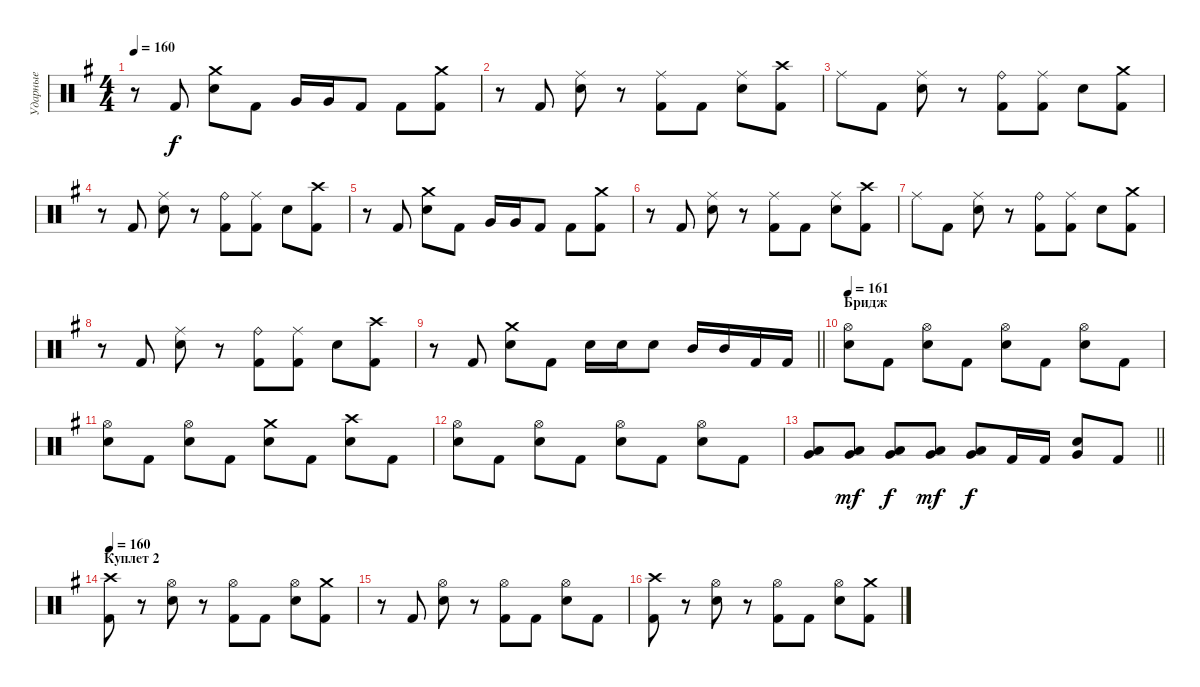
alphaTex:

\track ("Ударные" "Ударные") {instrument percussion}
\staff {score}
\articulation defaults
\ts (4 4)
\tempo 160
\clef neutral
\ks eminor
r.8{dy f} "Kick (hit) 2".8 ("Crash medium (hit)" "Electric Snare (hit)").8 "Kick (hit) 2".8 "Very Low Tom (hit)".16 "Very Low Tom (hit)".16 "Kick (hit) 2".8 "Kick (hit) 2".8 ("Crash medium (hit)" "Kick (hit) 2").8 |
r.8 "Kick (hit) 2".8 ("Ride (middle)" "Electric Snare (hit)").8 r.8 ("Ride (middle)" "Kick (hit) 2").8 "Kick (hit) 2".8 ("Ride (middle)" "Electric Snare (hit)").8 ("Crash high (hit)" "Kick (hit) 2").8 |
"Ride (middle)".8 "Kick (hit) 2".8 ("Ride (middle)" "Electric Snare (hit)").8 r.8 ("Ride (bell)" "Kick (hit) 2").8 ("Ride (middle)" "Kick (hit) 2").8 "Electric Snare (hit)".8 ("Crash medium (hit)" "Kick (hit) 2").8 |
r.8 "Kick (hit) 2".8 ("Ride (middle)" "Electric Snare (hit)").8 r.8 ("Ride (bell)" "Kick (hit) 2").8 ("Ride (middle)" "Kick (hit) 2").8 "Electric Snare (hit)".8 ("Crash high (hit)" "Kick (hit) 2").8 |
r.8 "Kick (hit) 2".8 ("Crash medium (hit)" "Electric Snare (hit)").8 "Kick (hit) 2".8 "Very Low Tom (hit)".16 "Very Low Tom (hit)".16 "Kick (hit) 2".8 "Kick (hit) 2".8 ("Crash medium (hit)" "Kick (hit) 2").8 |
r.8 "Kick (hit) 2".8 ("Ride (middle)" "Electric Snare (hit)").8 r.8 ("Ride (middle)" "Kick (hit) 2").8 "Kick (hit) 2".8 ("Ride (middle)" "Electric Snare (hit)").8 ("Crash high (hit)" "Kick (hit) 2").8 |
"Ride (middle)".8 "Kick (hit) 2".8 ("Ride (middle)" "Electric Snare (hit)").8 r.8 ("Ride (bell)" "Kick (hit) 2").8 ("Ride (middle)" "Kick (hit) 2").8 "Electric Snare (hit)".8 ("Crash medium (hit)" "Kick (hit) 2").8 |
r.8 "Kick (hit) 2".8 ("Ride (middle)" "Electric Snare (hit)").8 r.8 ("Ride (bell)" "Kick (hit) 2").8 ("Ride (middle)" "Kick (hit) 2").8 "Electric Snare (hit)".8 ("Crash high (hit)" "Kick (hit) 2").8 |
\barLineRight lightlight
r.8 "Kick (hit) 2".8 ("Crash medium (hit)" "Electric Snare (hit)").8 "Kick (hit) 2".8 "Electric Snare (hit)".16 "Electric Snare (hit)".16 "Electric Snare (hit)".8 "Mid Tom (hit)".16 "Mid Tom (hit)".16 "Kick (hit) 2".16 "Kick (hit) 2".16 |
\section ("" "Бридж")
\tempo 161
("Hi-Hat (open)" "Electric Snare (hit)").8 "Kick (hit) 2".8 ("Hi-Hat (open)" "Electric Snare (hit)").8 "Kick (hit) 2".8 ("Hi-Hat (open)" "Electric Snare (hit)").8 "Kick (hit) 2".8 ("Hi-Hat (open)" "Electric Snare (hit)").8 "Kick (hit) 2".8 |
("Hi-Hat (open)" "Electric Snare (hit)").8 "Kick (hit) 2".8 ("Hi-Hat (open)" "Electric Snare (hit)").8 "Kick (hit) 2".8 ("Crash medium (hit)" "Electric Snare (hit)").8 "Kick (hit) 2".8 ("Crash high (hit)" "Electric Snare (hit)").8 "Kick (hit) 2".8 |
("Hi-Hat (open)" "Electric Snare (hit)").8 "Kick (hit) 2".8 ("Hi-Hat (open)" "Electric Snare (hit)").8 "Kick (hit) 2".8 ("Hi-Hat (open)" "Electric Snare (hit)").8 "Kick (hit) 2".8 ("Hi-Hat (open)" "Electric Snare (hit)").8 "Kick (hit) 2".8 |
\barLineRight lightlight
("Low Tom (hit)" "Very Low Tom (hit)").8 ("Low Tom (hit)" "Very Low Tom (hit)").8{dy mf} ("Low Tom (hit)" "Very Low Tom (hit)").8{dy f} ("Low Tom (hit)" "Very Low Tom (hit)").8{dy mf} ("Low Tom (hit)" "Very Low Tom (hit)").8{dy f} "Kick (hit) 2".16 "Kick (hit) 2".16 ("Very Low Tom (hit)" "Electric Snare (hit)").8 "Kick (hit) 2".8 |
\section ("" "Куплет 2")
\tempo 160
("Crash high (hit)" "Kick (hit) 2").8 r.8 ("Hi-Hat (open)" "Electric Snare (hit)").8 r.8 ("Hi-Hat (open)" "Kick (hit) 2").8 "Kick (hit) 2".8 ("Hi-Hat (open)" "Electric Snare (hit)").8 ("Crash medium (hit)" "Kick (hit) 2").8 |
r.8 "Kick (hit) 2".8 ("Hi-Hat (open)" "Electric Snare (hit)").8 r.8 ("Hi-Hat (open)" "Kick (hit) 2").8 "Kick (hit) 2".8 ("Hi-Hat (open)" "Electric Snare (hit)").8 "Kick (hit) 2".8 |
("Crash high (hit)" "Kick (hit) 2").8 r.8 ("Hi-Hat (open)" "Electric Snare (hit)").8 r.8 ("Hi-Hat (open)" "Kick (hit) 2").8 "Kick (hit) 2".8 ("Hi-Hat (open)" "Electric Snare (hit)").8 ("Crash medium (hit)" "Kick (hit) 2").8
